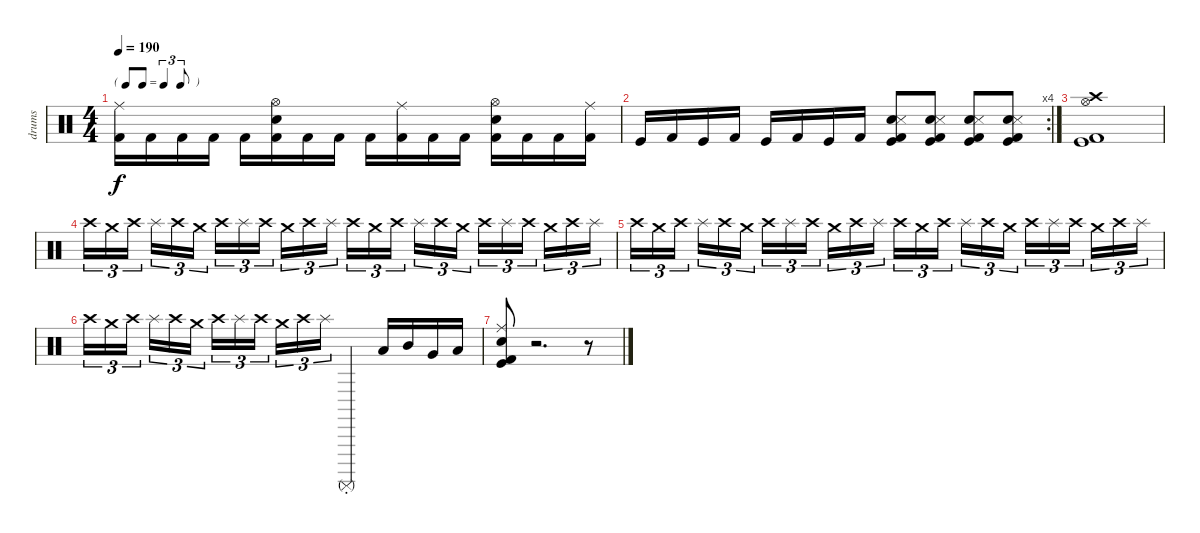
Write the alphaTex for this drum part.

\track ("drums" "drums") {instrument percussion}
\staff {score}
\articulation defaults
\ts (4 4)
\tf triplet8th
\tempo 190
\clef neutral
\ks c
("Kick (hit) 2" "Ride (middle)").16{dy f} "Kick (hit) 2".16 "Kick (hit) 2".16 "Kick (hit) 2".16 "Kick (hit) 2".16 ("Kick (hit) 2" "Electric Snare (hit)" "Hi-Hat (open)").16 "Kick (hit) 2".16 "Kick (hit) 2".16 "Kick (hit) 2".16 ("Kick (hit) 2" "Ride (middle)").16 "Kick (hit) 2".16 "Kick (hit) 2".16 ("Kick (hit) 2" "Electric Snare (hit)" "Hi-Hat (open)").16 "Kick (hit) 2".16 "Kick (hit) 2".16 ("Kick (hit) 2" "Ride (middle)").16 |
\rc 4 "Kick (hit)".16 "Kick (hit) 2".16 "Kick (hit)".16 "Kick (hit) 2".16 "Kick (hit)".16 "Kick (hit) 2".16 "Kick (hit)".16 "Kick (hit) 2".16
("Electric Snare (hit)" "Snare (side stick) 3" "Kick (hit)" "Kick (hit) 2").8 ("Electric Snare (hit)" "Snare (side stick) 3" "Kick (hit)" "Kick (hit) 2").8 ("Electric Snare (hit)" "Snare (side stick) 3" "Kick (hit)" "Kick (hit) 2").8 ("Electric Snare (hit)" "Snare (side stick) 3" "Kick (hit)" "Kick (hit) 2").8 |
("Crash high (hit)" "Hi-Hat (open)" "Kick (hit)" "Kick (hit) 2").1 |
"Crash high (hit)".16{tu (3 2)} "Crash medium (hit)".16{tu (3 2)} "Crash high (hit)".16{tu (3 2)} "Splash (hit)".16{tu (3 2)} "Crash high (hit)".16{tu (3 2)} "Crash medium (hit)".16{tu (3 2)} "Crash high (hit)".16{tu (3 2)} "Splash (hit)".16{tu (3 2)} "Crash high (hit)".16{tu (3 2)} "Crash medium (hit)".16{tu (3 2)} "Crash high (hit)".16{tu (3 2)} "Splash (hit)".16{tu (3 2)} "Crash high (hit)".16{tu (3 2)} "Crash medium (hit)".16{tu (3 2)} "Crash high (hit)".16{tu (3 2)} "Splash (hit)".16{tu (3 2)} "Crash high (hit)".16{tu (3 2)} "Crash medium (hit)".16{tu (3 2)} "Crash high (hit)".16{tu (3 2)} "Splash (hit)".16{tu (3 2)} "Crash high (hit)".16{tu (3 2)} "Crash medium (hit)".16{tu (3 2)} "Crash high (hit)".16{tu (3 2)} "Splash (hit)".16{tu (3 2)} |
"Crash high (hit)".16{tu (3 2)} "Crash medium (hit)".16{tu (3 2)} "Crash high (hit)".16{tu (3 2)} "Splash (hit)".16{tu (3 2)} "Crash high (hit)".16{tu (3 2)} "Crash medium (hit)".16{tu (3 2)} "Crash high (hit)".16{tu (3 2)} "Splash (hit)".16{tu (3 2)} "Crash high (hit)".16{tu (3 2)} "Crash medium (hit)".16{tu (3 2)} "Crash high (hit)".16{tu (3 2)} "Splash (hit)".16{tu (3 2)} "Crash high (hit)".16{tu (3 2)} "Crash medium (hit)".16{tu (3 2)} "Crash high (hit)".16{tu (3 2)} "Splash (hit)".16{tu (3 2)} "Crash high (hit)".16{tu (3 2)} "Crash medium (hit)".16{tu (3 2)} "Crash high (hit)".16{tu (3 2)} "Splash (hit)".16{tu (3 2)} "Crash high (hit)".16{tu (3 2)} "Crash medium (hit)".16{tu (3 2)} "Crash high (hit)".16{tu (3 2)} "Splash (hit)".16{tu (3 2)} |
"Crash high (hit)".16{tu (3 2)} "Crash medium (hit)".16{tu (3 2)} "Crash high (hit)".16{tu (3 2)} "Splash (hit)".16{tu (3 2)} "Crash high (hit)".16{tu (3 2)} "Crash medium (hit)".16{tu (3 2)} "Crash high (hit)".16{tu (3 2)} "Splash (hit)".16{tu (3 2)} "Crash high (hit)".16{tu (3 2)} "Crash medium (hit)".16{tu (3 2)} "Crash high (hit)".16{tu (3 2)} "Splash (hit)".16{tu (3 2)} "Surdo (mute)"{st}.4 "Low Tom (hit)".16 "Mid Tom (hit)".16 "Very Low Tom (hit)".16 "Low Floor Tom (hit)".16 |
("Ride (middle)" "Electric Snare (hit)" "Kick (hit)" "Kick (hit) 2").8 r.2{d} r.8
